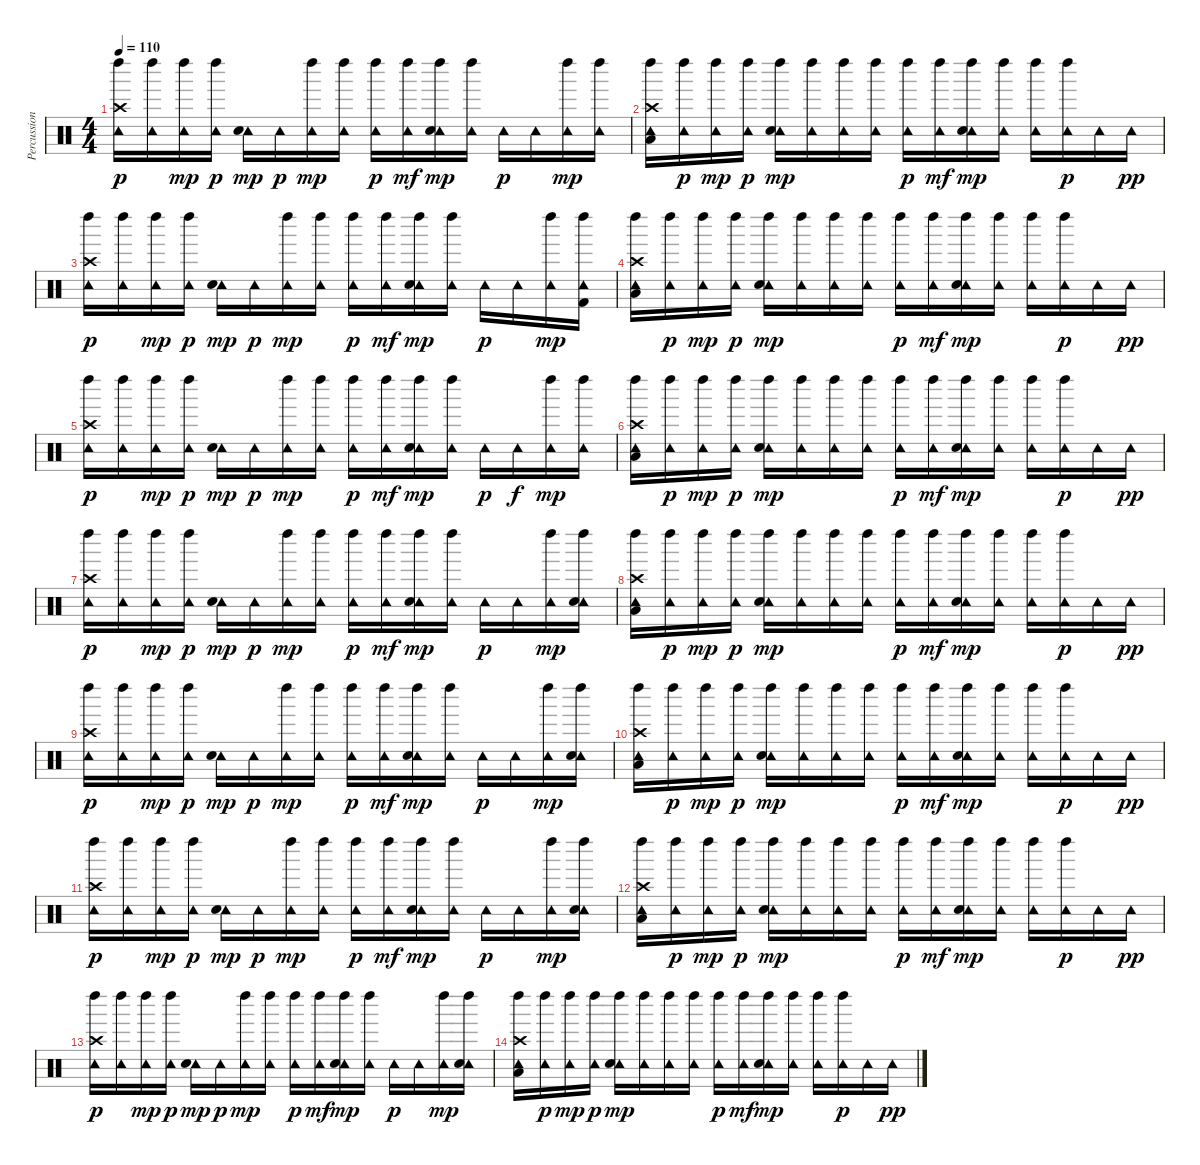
\track ("Percussion" "Percussion") {instrument percussion}
\staff {score}
\articulation defaults
\ts (4 4)
\tempo 110
\clef neutral
\ks c
("Crash high (hit)" "Tambourine (hit)" "Left Maraca (hit)").16{dy p} ("Left Maraca (hit)" "Tambourine (hit)").16 ("Tambourine (hit)" "Left Maraca (hit)").16{dy mp} ("Left Maraca (hit)" "Tambourine (hit)").16{dy p} ("Tambourine (hit)" "Snare (hit) 2").16{dy mp} "Tambourine (hit)".16{dy p} ("Tambourine (hit)" "Left Maraca (hit)").16{dy mp} ("Tambourine (hit)" "Left Maraca (hit)").16 ("Tambourine (hit)" "Left Maraca (hit)").16{dy p} ("Tambourine (hit)" "Left Maraca (hit)").16{dy mf} ("Tambourine (hit)" "Left Maraca (hit)" "Electric Snare (hit)").16{dy mp} ("Tambourine (hit)" "Left Maraca (hit)").16 "Tambourine (hit)".16{dy p} "Tambourine (hit)".16 ("Tambourine (hit)" "Left Maraca (hit)").16{dy mp} ("Tambourine (hit)" "Left Maraca (hit)").16 |
("Crash high (hit)" "Tambourine (hit)" "Left Maraca (hit)" "Low Floor Tom (hit)").16 ("Left Maraca (hit)" "Tambourine (hit)").16{dy p} ("Tambourine (hit)" "Left Maraca (hit)").16{dy mp} ("Left Maraca (hit)" "Tambourine (hit)").16{dy p} ("Tambourine (hit)" "Left Maraca (hit)" "Snare (hit) 2").16{dy mp} ("Tambourine (hit)" "Left Maraca (hit)").16 ("Tambourine (hit)" "Left Maraca (hit)").16 ("Tambourine (hit)" "Left Maraca (hit)").16 ("Tambourine (hit)" "Left Maraca (hit)").16{dy p} ("Tambourine (hit)" "Left Maraca (hit)").16{dy mf} ("Tambourine (hit)" "Left Maraca (hit)" "Electric Snare (hit)").16{dy mp} ("Tambourine (hit)" "Left Maraca (hit)").16 ("Tambourine (hit)" "Left Maraca (hit)").16 ("Tambourine (hit)" "Left Maraca (hit)").16{dy p} "Tambourine (hit)".16 "Tambourine (hit)".16{dy pp} |
("Crash high (hit)" "Tambourine (hit)" "Left Maraca (hit)").16{dy p} ("Left Maraca (hit)" "Tambourine (hit)").16 ("Tambourine (hit)" "Left Maraca (hit)").16{dy mp} ("Left Maraca (hit)" "Tambourine (hit)").16{dy p} ("Tambourine (hit)" "Snare (hit) 2").16{dy mp} "Tambourine (hit)".16{dy p} ("Tambourine (hit)" "Left Maraca (hit)").16{dy mp} ("Tambourine (hit)" "Left Maraca (hit)").16 ("Tambourine (hit)" "Left Maraca (hit)").16{dy p} ("Tambourine (hit)" "Left Maraca (hit)").16{dy mf} ("Tambourine (hit)" "Left Maraca (hit)" "Electric Snare (hit)").16{dy mp} ("Tambourine (hit)" "Left Maraca (hit)").16 "Tambourine (hit)".16{dy p} "Tambourine (hit)".16 ("Tambourine (hit)" "Left Maraca (hit)").16{dy mp} ("Tambourine (hit)" "Left Maraca (hit)" "Kick (hit) 2").16 |
("Crash high (hit)" "Tambourine (hit)" "Left Maraca (hit)" "Low Floor Tom (hit)").16 ("Left Maraca (hit)" "Tambourine (hit)").16{dy p} ("Tambourine (hit)" "Left Maraca (hit)").16{dy mp} ("Left Maraca (hit)" "Tambourine (hit)").16{dy p} ("Tambourine (hit)" "Left Maraca (hit)" "Snare (hit) 2").16{dy mp} ("Tambourine (hit)" "Left Maraca (hit)").16 ("Tambourine (hit)" "Left Maraca (hit)").16 ("Tambourine (hit)" "Left Maraca (hit)").16 ("Tambourine (hit)" "Left Maraca (hit)").16{dy p} ("Tambourine (hit)" "Left Maraca (hit)").16{dy mf} ("Tambourine (hit)" "Left Maraca (hit)" "Electric Snare (hit)").16{dy mp} ("Tambourine (hit)" "Left Maraca (hit)").16 ("Tambourine (hit)" "Left Maraca (hit)").16 ("Tambourine (hit)" "Left Maraca (hit)").16{dy p} "Tambourine (hit)".16 "Tambourine (hit)".16{dy pp} |
("Crash high (hit)" "Tambourine (hit)" "Left Maraca (hit)").16{dy p} ("Left Maraca (hit)" "Tambourine (hit)").16 ("Tambourine (hit)" "Left Maraca (hit)").16{dy mp} ("Left Maraca (hit)" "Tambourine (hit)").16{dy p} ("Tambourine (hit)" "Snare (hit) 2").16{dy mp} "Tambourine (hit)".16{dy p} ("Tambourine (hit)" "Left Maraca (hit)").16{dy mp} ("Tambourine (hit)" "Left Maraca (hit)").16 ("Tambourine (hit)" "Left Maraca (hit)").16{dy p} ("Tambourine (hit)" "Left Maraca (hit)").16{dy mf} ("Tambourine (hit)" "Left Maraca (hit)" "Electric Snare (hit)").16{dy mp} ("Tambourine (hit)" "Left Maraca (hit)").16 "Tambourine (hit)".16{dy p} "Tambourine (hit)".16{dy f} ("Tambourine (hit)" "Left Maraca (hit)").16{dy mp} ("Tambourine (hit)" "Left Maraca (hit)").16 |
("Crash high (hit)" "Tambourine (hit)" "Left Maraca (hit)" "Low Floor Tom (hit)").16 ("Left Maraca (hit)" "Tambourine (hit)").16{dy p} ("Tambourine (hit)" "Left Maraca (hit)").16{dy mp} ("Left Maraca (hit)" "Tambourine (hit)").16{dy p} ("Tambourine (hit)" "Left Maraca (hit)" "Snare (hit) 2").16{dy mp} ("Tambourine (hit)" "Left Maraca (hit)").16 ("Tambourine (hit)" "Left Maraca (hit)").16 ("Tambourine (hit)" "Left Maraca (hit)").16 ("Tambourine (hit)" "Left Maraca (hit)").16{dy p} ("Tambourine (hit)" "Left Maraca (hit)").16{dy mf} ("Tambourine (hit)" "Left Maraca (hit)" "Electric Snare (hit)").16{dy mp} ("Tambourine (hit)" "Left Maraca (hit)").16 ("Tambourine (hit)" "Left Maraca (hit)").16 ("Tambourine (hit)" "Left Maraca (hit)").16{dy p} "Tambourine (hit)".16 "Tambourine (hit)".16{dy pp} |
("Tambourine (hit)" "Left Maraca (hit)" "Crash high (hit)").16{dy p} ("Left Maraca (hit)" "Tambourine (hit)").16 ("Tambourine (hit)" "Left Maraca (hit)").16{dy mp} ("Left Maraca (hit)" "Tambourine (hit)").16{dy p} ("Tambourine (hit)" "Snare (hit) 2").16{dy mp} "Tambourine (hit)".16{dy p} ("Tambourine (hit)" "Left Maraca (hit)").16{dy mp} ("Tambourine (hit)" "Left Maraca (hit)").16 ("Tambourine (hit)" "Left Maraca (hit)").16{dy p} ("Tambourine (hit)" "Left Maraca (hit)").16{dy mf} ("Tambourine (hit)" "Left Maraca (hit)" "Electric Snare (hit)").16{dy mp} ("Tambourine (hit)" "Left Maraca (hit)").16 "Tambourine (hit)".16{dy p} "Tambourine (hit)".16 ("Tambourine (hit)" "Left Maraca (hit)").16{dy mp} ("Tambourine (hit)" "Left Maraca (hit)" "Electric Snare (hit)").16 |
("Crash high (hit)" "Tambourine (hit)" "Left Maraca (hit)" "Low Floor Tom (hit)").16 ("Left Maraca (hit)" "Tambourine (hit)").16{dy p} ("Tambourine (hit)" "Left Maraca (hit)").16{dy mp} ("Left Maraca (hit)" "Tambourine (hit)").16{dy p} ("Tambourine (hit)" "Left Maraca (hit)" "Snare (hit) 2").16{dy mp} ("Tambourine (hit)" "Left Maraca (hit)").16 ("Tambourine (hit)" "Left Maraca (hit)").16 ("Tambourine (hit)" "Left Maraca (hit)").16 ("Tambourine (hit)" "Left Maraca (hit)").16{dy p} ("Tambourine (hit)" "Left Maraca (hit)").16{dy mf} ("Tambourine (hit)" "Left Maraca (hit)" "Electric Snare (hit)").16{dy mp} ("Tambourine (hit)" "Left Maraca (hit)").16 ("Tambourine (hit)" "Left Maraca (hit)").16 ("Tambourine (hit)" "Left Maraca (hit)").16{dy p} "Tambourine (hit)".16 "Tambourine (hit)".16{dy pp} |
("Tambourine (hit)" "Left Maraca (hit)" "Crash high (hit)").16{dy p} ("Left Maraca (hit)" "Tambourine (hit)").16 ("Tambourine (hit)" "Left Maraca (hit)").16{dy mp} ("Left Maraca (hit)" "Tambourine (hit)").16{dy p} ("Tambourine (hit)" "Snare (hit) 2").16{dy mp} "Tambourine (hit)".16{dy p} ("Tambourine (hit)" "Left Maraca (hit)").16{dy mp} ("Tambourine (hit)" "Left Maraca (hit)").16 ("Tambourine (hit)" "Left Maraca (hit)").16{dy p} ("Tambourine (hit)" "Left Maraca (hit)").16{dy mf} ("Tambourine (hit)" "Left Maraca (hit)" "Electric Snare (hit)").16{dy mp} ("Tambourine (hit)" "Left Maraca (hit)").16 "Tambourine (hit)".16{dy p} "Tambourine (hit)".16 ("Tambourine (hit)" "Left Maraca (hit)").16{dy mp} ("Tambourine (hit)" "Left Maraca (hit)" "Electric Snare (hit)").16 |
("Crash high (hit)" "Tambourine (hit)" "Left Maraca (hit)" "Low Floor Tom (hit)").16 ("Left Maraca (hit)" "Tambourine (hit)").16{dy p} ("Tambourine (hit)" "Left Maraca (hit)").16{dy mp volume 9} ("Left Maraca (hit)" "Tambourine (hit)").16{dy p} ("Tambourine (hit)" "Left Maraca (hit)" "Snare (hit) 2").16{dy mp volume 9} ("Tambourine (hit)" "Left Maraca (hit)").16 ("Tambourine (hit)" "Left Maraca (hit)").16{volume 9} ("Tambourine (hit)" "Left Maraca (hit)").16 ("Tambourine (hit)" "Left Maraca (hit)").16{dy p volume 8} ("Tambourine (hit)" "Left Maraca (hit)").16{dy mf} ("Tambourine (hit)" "Left Maraca (hit)" "Electric Snare (hit)").16{dy mp volume 8} ("Tambourine (hit)" "Left Maraca (hit)").16 ("Tambourine (hit)" "Left Maraca (hit)").16{volume 8} ("Tambourine (hit)" "Left Maraca (hit)").16{dy p} "Tambourine (hit)".16{volume 8} "Tambourine (hit)".16{dy pp} |
("Tambourine (hit)" "Left Maraca (hit)" "Crash high (hit)").16{dy p volume 8} ("Left Maraca (hit)" "Tambourine (hit)").16 ("Tambourine (hit)" "Left Maraca (hit)").16{dy mp volume 7} ("Left Maraca (hit)" "Tambourine (hit)").16{dy p} ("Tambourine (hit)" "Snare (hit) 2").16{dy mp volume 7} "Tambourine (hit)".16{dy p} ("Tambourine (hit)" "Left Maraca (hit)").16{dy mp volume 7} ("Tambourine (hit)" "Left Maraca (hit)").16 ("Tambourine (hit)" "Left Maraca (hit)").16{dy p volume 6} ("Tambourine (hit)" "Left Maraca (hit)").16{dy mf} ("Tambourine (hit)" "Left Maraca (hit)" "Electric Snare (hit)").16{dy mp volume 6} ("Tambourine (hit)" "Left Maraca (hit)").16 "Tambourine (hit)".16{dy p volume 6} "Tambourine (hit)".16 ("Tambourine (hit)" "Left Maraca (hit)").16{dy mp volume 6} ("Tambourine (hit)" "Left Maraca (hit)" "Electric Snare (hit)").16 |
("Crash high (hit)" "Tambourine (hit)" "Left Maraca (hit)" "Low Floor Tom (hit)").16 ("Left Maraca (hit)" "Tambourine (hit)").16{dy p} ("Tambourine (hit)" "Left Maraca (hit)").16{dy mp volume 5} ("Left Maraca (hit)" "Tambourine (hit)").16{dy p} ("Tambourine (hit)" "Left Maraca (hit)" "Snare (hit) 2").16{dy mp volume 5} ("Tambourine (hit)" "Left Maraca (hit)").16 ("Tambourine (hit)" "Left Maraca (hit)").16{volume 5} ("Tambourine (hit)" "Left Maraca (hit)").16 ("Tambourine (hit)" "Left Maraca (hit)").16{dy p volume 4} ("Tambourine (hit)" "Left Maraca (hit)").16{dy mf} ("Tambourine (hit)" "Left Maraca (hit)" "Electric Snare (hit)").16{dy mp volume 4} ("Tambourine (hit)" "Left Maraca (hit)").16 ("Tambourine (hit)" "Left Maraca (hit)").16{volume 4} ("Tambourine (hit)" "Left Maraca (hit)").16{dy p} "Tambourine (hit)".16{volume 4} "Tambourine (hit)".16{dy pp} |
("Tambourine (hit)" "Left Maraca (hit)" "Crash high (hit)").16{dy p volume 4} ("Left Maraca (hit)" "Tambourine (hit)").16 ("Tambourine (hit)" "Left Maraca (hit)").16{dy mp volume 3} ("Left Maraca (hit)" "Tambourine (hit)").16{dy p} ("Tambourine (hit)" "Snare (hit) 2").16{dy mp volume 3} "Tambourine (hit)".16{dy p} ("Tambourine (hit)" "Left Maraca (hit)").16{dy mp volume 3} ("Tambourine (hit)" "Left Maraca (hit)").16 ("Tambourine (hit)" "Left Maraca (hit)").16{dy p volume 2} ("Tambourine (hit)" "Left Maraca (hit)").16{dy mf} ("Tambourine (hit)" "Left Maraca (hit)" "Electric Snare (hit)").16{dy mp volume 2} ("Tambourine (hit)" "Left Maraca (hit)").16 "Tambourine (hit)".16{dy p volume 2} "Tambourine (hit)".16 ("Tambourine (hit)" "Left Maraca (hit)").16{dy mp volume 2} ("Tambourine (hit)" "Left Maraca (hit)" "Electric Snare (hit)").16 |
("Crash high (hit)" "Tambourine (hit)" "Left Maraca (hit)" "Low Floor Tom (hit)").16 ("Left Maraca (hit)" "Tambourine (hit)").16{dy p} ("Tambourine (hit)" "Left Maraca (hit)").16{dy mp volume 1} ("Left Maraca (hit)" "Tambourine (hit)").16{dy p} ("Tambourine (hit)" "Left Maraca (hit)" "Snare (hit) 2").16{dy mp volume 1} ("Tambourine (hit)" "Left Maraca (hit)").16 ("Tambourine (hit)" "Left Maraca (hit)").16{volume 1} ("Tambourine (hit)" "Left Maraca (hit)").16 ("Tambourine (hit)" "Left Maraca (hit)").16{dy p volume 0} ("Tambourine (hit)" "Left Maraca (hit)").16{dy mf} ("Tambourine (hit)" "Left Maraca (hit)" "Electric Snare (hit)").16{dy mp volume 0} ("Tambourine (hit)" "Left Maraca (hit)").16 ("Tambourine (hit)" "Left Maraca (hit)").16{volume 0} ("Tambourine (hit)" "Left Maraca (hit)").16{dy p} "Tambourine (hit)".16 "Tambourine (hit)".16{dy pp}
